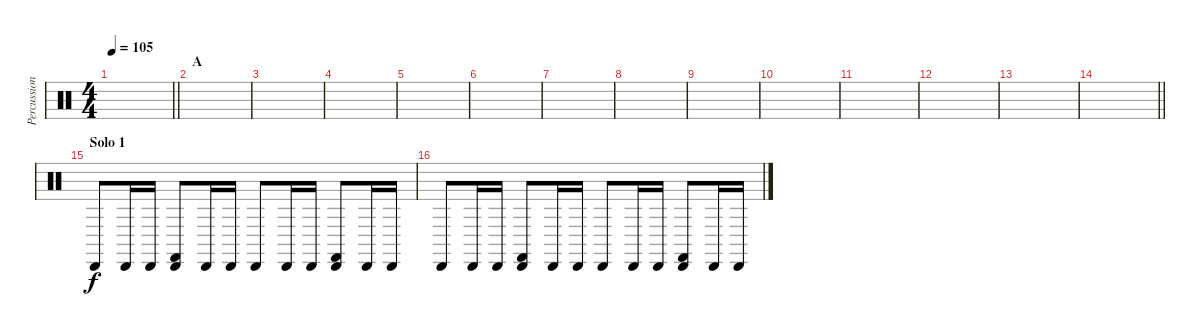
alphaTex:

\track ("Percussion" "Percussion") {instrument percussion}
\staff {score}
\articulation defaults
\ts (4 4)
\tempo 105
\clef neutral
\barLineRight lightlight
\ks c
|
\section ("" "A")
|
|
|
|
|
|
|
|
|
|
|
|
\barLineRight lightlight
|
\section ("" "Solo 1")
"Cabasa (hit)".8 "Cabasa (hit)".16 "Cabasa (hit)".16 ("Cabasa (hit)" "Castanets (hit)").8 "Cabasa (hit)".16 "Cabasa (hit)".16 "Cabasa (hit)".8 "Cabasa (hit)".16 "Cabasa (hit)".16 ("Cabasa (hit)" "Castanets (hit)").8 "Cabasa (hit)".16 "Cabasa (hit)".16 |
"Cabasa (hit)".8 "Cabasa (hit)".16 "Cabasa (hit)".16 ("Cabasa (hit)" "Castanets (hit)").8 "Cabasa (hit)".16 "Cabasa (hit)".16 "Cabasa (hit)".8 "Cabasa (hit)".16 "Cabasa (hit)".16 ("Cabasa (hit)" "Castanets (hit)").8 "Cabasa (hit)".16 "Cabasa (hit)".16
